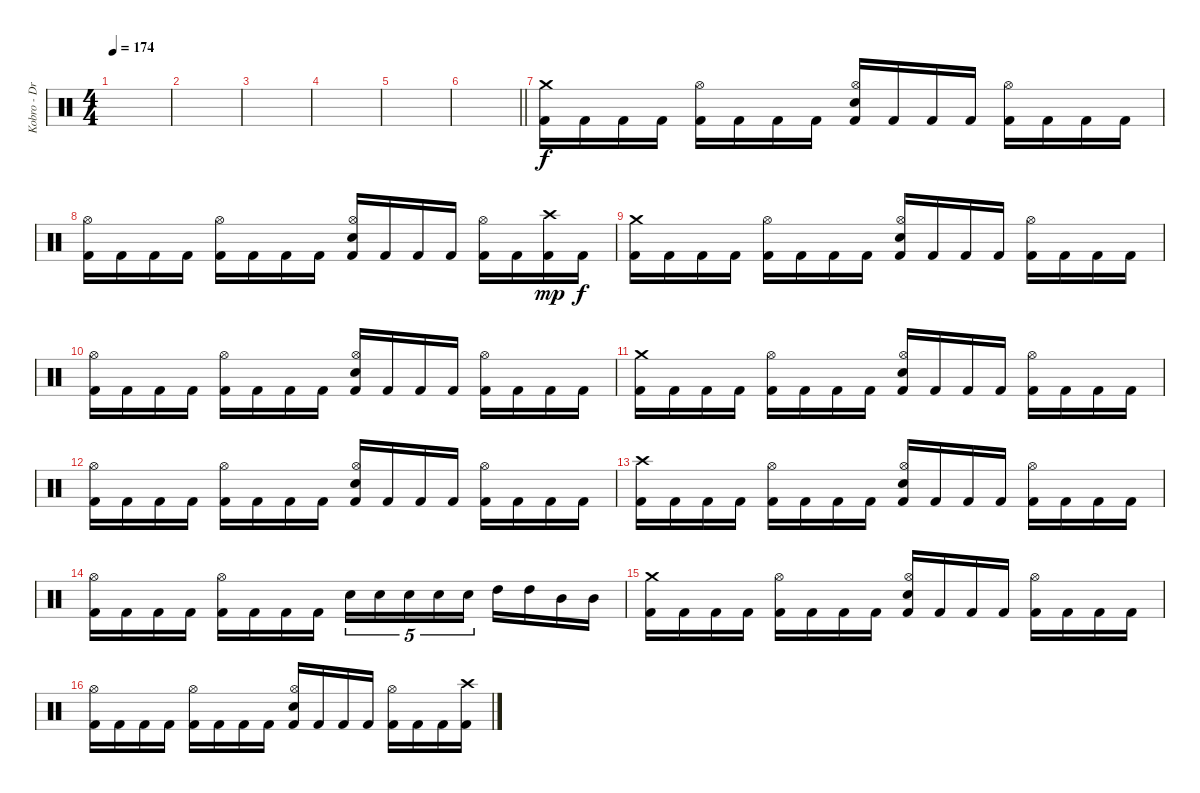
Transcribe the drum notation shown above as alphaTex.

\track ("Kobro - Drums + Percussion" "Kobro - Dr") {instrument percussion}
\staff {score}
\articulation defaults
\ts (4 4)
\tempo 174
\clef neutral
\ks c
|
|
|
|
|
\barLineRight lightlight
|
("Crash medium (hit)" "Kick (hit) 2").16 "Kick (hit) 2".16 "Kick (hit) 2".16 "Kick (hit) 2".16 ("Hi-Hat (open)" "Kick (hit) 2").16 "Kick (hit) 2".16 "Kick (hit) 2".16 "Kick (hit) 2".16 ("Hi-Hat (open)" "Electric Snare (hit)" "Kick (hit) 2").16 "Kick (hit) 2".16 "Kick (hit) 2".16 "Kick (hit) 2".16 ("Hi-Hat (open)" "Kick (hit) 2").16 "Kick (hit) 2".16 "Kick (hit) 2".16 "Kick (hit) 2".16 |
("Hi-Hat (open)" "Kick (hit) 2").16 "Kick (hit) 2".16 "Kick (hit) 2".16 "Kick (hit) 2".16 ("Hi-Hat (open)" "Kick (hit) 2").16 "Kick (hit) 2".16 "Kick (hit) 2".16 "Kick (hit) 2".16 ("Hi-Hat (open)" "Electric Snare (hit)" "Kick (hit) 2").16 "Kick (hit) 2".16 "Kick (hit) 2".16 "Kick (hit) 2".16 ("Hi-Hat (open)" "Kick (hit) 2").16 "Kick (hit) 2".16 ("Crash high (hit)" "Kick (hit) 2").16{dy mp} "Kick (hit) 2".16{dy f} |
("Crash medium (hit)" "Kick (hit) 2").16 "Kick (hit) 2".16 "Kick (hit) 2".16 "Kick (hit) 2".16 ("Hi-Hat (open)" "Kick (hit) 2").16 "Kick (hit) 2".16 "Kick (hit) 2".16 "Kick (hit) 2".16 ("Hi-Hat (open)" "Electric Snare (hit)" "Kick (hit) 2").16 "Kick (hit) 2".16 "Kick (hit) 2".16 "Kick (hit) 2".16 ("Hi-Hat (open)" "Kick (hit) 2").16 "Kick (hit) 2".16 "Kick (hit) 2".16 "Kick (hit) 2".16 |
("Hi-Hat (open)" "Kick (hit) 2").16 "Kick (hit) 2".16 "Kick (hit) 2".16 "Kick (hit) 2".16 ("Hi-Hat (open)" "Kick (hit) 2").16 "Kick (hit) 2".16 "Kick (hit) 2".16 "Kick (hit) 2".16 ("Hi-Hat (open)" "Electric Snare (hit)" "Kick (hit) 2").16 "Kick (hit) 2".16 "Kick (hit) 2".16 "Kick (hit) 2".16 ("Hi-Hat (open)" "Kick (hit) 2").16 "Kick (hit) 2".16 "Kick (hit) 2".16 "Kick (hit) 2".16 |
("Crash medium (hit)" "Kick (hit) 2").16 "Kick (hit) 2".16 "Kick (hit) 2".16 "Kick (hit) 2".16 ("Hi-Hat (open)" "Kick (hit) 2").16 "Kick (hit) 2".16 "Kick (hit) 2".16 "Kick (hit) 2".16 ("Hi-Hat (open)" "Electric Snare (hit)" "Kick (hit) 2").16 "Kick (hit) 2".16 "Kick (hit) 2".16 "Kick (hit) 2".16 ("Hi-Hat (open)" "Kick (hit) 2").16 "Kick (hit) 2".16 "Kick (hit) 2".16 "Kick (hit) 2".16 |
("Hi-Hat (open)" "Kick (hit) 2").16 "Kick (hit) 2".16 "Kick (hit) 2".16 "Kick (hit) 2".16 ("Hi-Hat (open)" "Kick (hit) 2").16 "Kick (hit) 2".16 "Kick (hit) 2".16 "Kick (hit) 2".16 ("Hi-Hat (open)" "Electric Snare (hit)" "Kick (hit) 2").16 "Kick (hit) 2".16 "Kick (hit) 2".16 "Kick (hit) 2".16 ("Hi-Hat (open)" "Kick (hit) 2").16 "Kick (hit) 2".16 "Kick (hit) 2".16 "Kick (hit) 2".16 |
("Crash high (hit)" "Kick (hit) 2").16 "Kick (hit) 2".16 "Kick (hit) 2".16 "Kick (hit) 2".16 ("Hi-Hat (open)" "Kick (hit) 2").16 "Kick (hit) 2".16 "Kick (hit) 2".16 "Kick (hit) 2".16 ("Hi-Hat (open)" "Electric Snare (hit)" "Kick (hit) 2").16 "Kick (hit) 2".16 "Kick (hit) 2".16 "Kick (hit) 2".16 ("Hi-Hat (open)" "Kick (hit) 2").16 "Kick (hit) 2".16 "Kick (hit) 2".16 "Kick (hit) 2".16 |
("Hi-Hat (open)" "Kick (hit) 2").16 "Kick (hit) 2".16 "Kick (hit) 2".16 "Kick (hit) 2".16 ("Hi-Hat (open)" "Kick (hit) 2").16 "Kick (hit) 2".16 "Kick (hit) 2".16 "Kick (hit) 2".16 "Electric Snare (hit)".16{tu (5 4)} "Electric Snare (hit)".16{tu (5 4)} "Electric Snare (hit)".16{tu (5 4)} "Electric Snare (hit)".16{tu (5 4)} "Electric Snare (hit)".16{tu (5 4)} "High Tom (hit)".16 "High Tom (hit)".16 "Mid Tom (hit)".16 "Mid Tom (hit)".16 |
("Crash medium (hit)" "Kick (hit) 2").16 "Kick (hit) 2".16 "Kick (hit) 2".16 "Kick (hit) 2".16 ("Hi-Hat (open)" "Kick (hit) 2").16 "Kick (hit) 2".16 "Kick (hit) 2".16 "Kick (hit) 2".16 ("Hi-Hat (open)" "Electric Snare (hit)" "Kick (hit) 2").16 "Kick (hit) 2".16 "Kick (hit) 2".16 "Kick (hit) 2".16 ("Hi-Hat (open)" "Kick (hit) 2").16 "Kick (hit) 2".16 "Kick (hit) 2".16 "Kick (hit) 2".16 |
("Hi-Hat (open)" "Kick (hit) 2").16 "Kick (hit) 2".16 "Kick (hit) 2".16 "Kick (hit) 2".16 ("Hi-Hat (open)" "Kick (hit) 2").16 "Kick (hit) 2".16 "Kick (hit) 2".16 "Kick (hit) 2".16 ("Hi-Hat (open)" "Electric Snare (hit)" "Kick (hit) 2").16 "Kick (hit) 2".16 "Kick (hit) 2".16 "Kick (hit) 2".16 ("Hi-Hat (open)" "Kick (hit) 2").16 "Kick (hit) 2".16 "Kick (hit) 2".16 ("Crash high (hit)" "Kick (hit) 2").16
